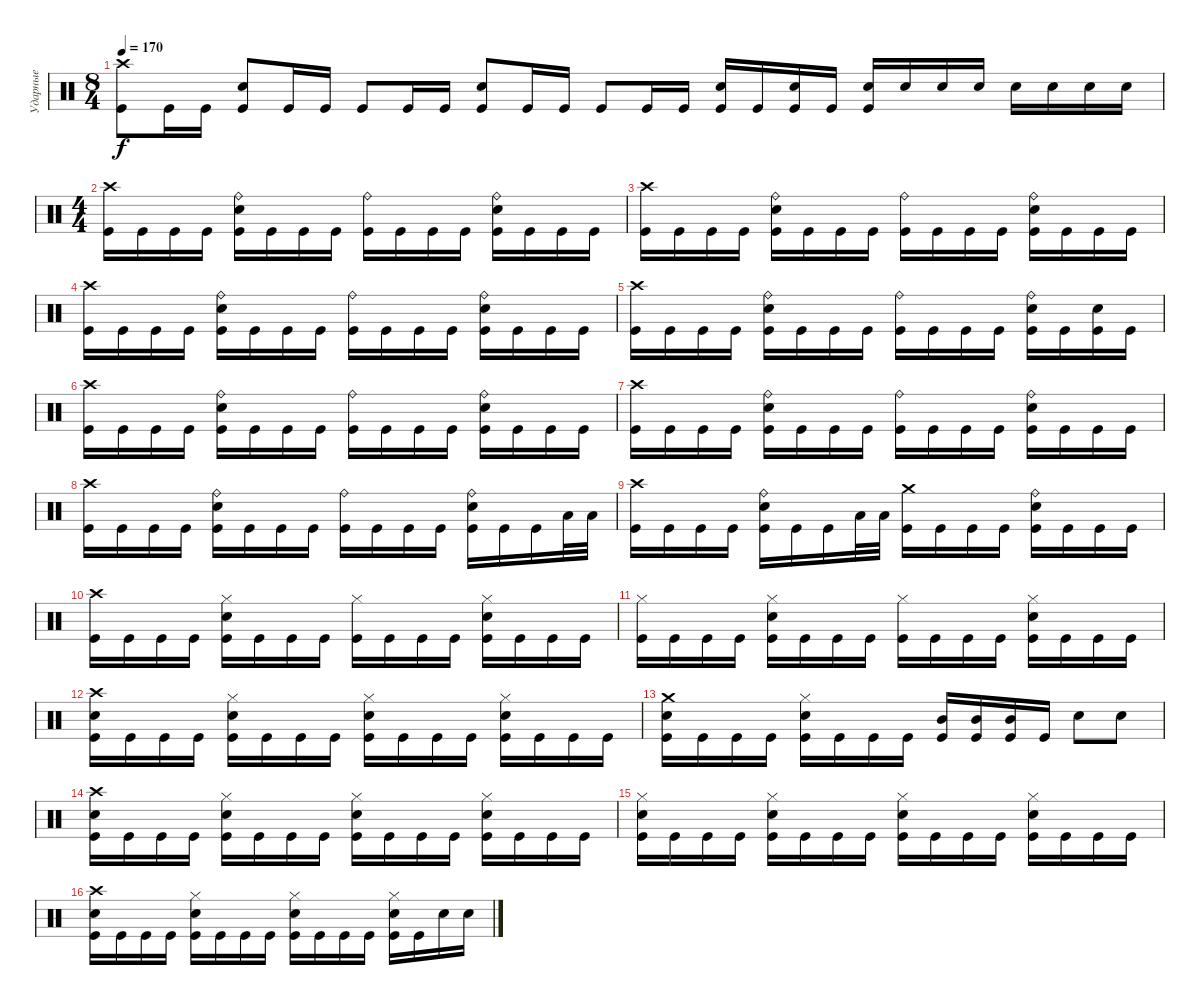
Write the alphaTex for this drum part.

\track ("Ударные" "Ударные") {instrument percussion}
\staff {score}
\articulation defaults
\ts (8 4)
\tempo 170
\clef neutral
\ks c
("Crash high (hit)" "Kick (hit)").8{dy f} "Kick (hit)".16 "Kick (hit)".16 ("Electric Snare (hit)" "Kick (hit)").8 "Kick (hit)".16 "Kick (hit)".16 "Kick (hit)".8 "Kick (hit)".16 "Kick (hit)".16 ("Electric Snare (hit)" "Kick (hit)").8 "Kick (hit)".16 "Kick (hit)".16 "Kick (hit)".8 "Kick (hit)".16 "Kick (hit)".16 ("Electric Snare (hit)" "Kick (hit)").16 "Kick (hit)".16 ("Electric Snare (hit)" "Kick (hit)").16 "Kick (hit)".16 ("Electric Snare (hit)" "Kick (hit)").16 "Electric Snare (hit)".16 "Electric Snare (hit)".16 "Electric Snare (hit)".16 "Electric Snare (hit)".16 "Electric Snare (hit)".16 "Electric Snare (hit)".16 "Electric Snare (hit)".16 |
\ts (4 4)
("Crash high (hit)" "Kick (hit)").16 "Kick (hit)".16 "Kick (hit)".16 "Kick (hit)".16 ("Ride (bell)" "Electric Snare (hit)" "Kick (hit)").16 "Kick (hit)".16 "Kick (hit)".16 "Kick (hit)".16 ("Ride (bell)" "Kick (hit)").16 "Kick (hit)".16 "Kick (hit)".16 "Kick (hit)".16 ("Ride (bell)" "Electric Snare (hit)" "Kick (hit)").16 "Kick (hit)".16 "Kick (hit)".16 "Kick (hit)".16 |
("Crash high (hit)" "Kick (hit)").16 "Kick (hit)".16 "Kick (hit)".16 "Kick (hit)".16 ("Ride (bell)" "Electric Snare (hit)" "Kick (hit)").16 "Kick (hit)".16 "Kick (hit)".16 "Kick (hit)".16 ("Ride (bell)" "Kick (hit)").16 "Kick (hit)".16 "Kick (hit)".16 "Kick (hit)".16 ("Ride (bell)" "Electric Snare (hit)" "Kick (hit)").16 "Kick (hit)".16 "Kick (hit)".16 "Kick (hit)".16 |
("Crash high (hit)" "Kick (hit)").16 "Kick (hit)".16 "Kick (hit)".16 "Kick (hit)".16 ("Ride (bell)" "Electric Snare (hit)" "Kick (hit)").16 "Kick (hit)".16 "Kick (hit)".16 "Kick (hit)".16 ("Ride (bell)" "Kick (hit)").16 "Kick (hit)".16 "Kick (hit)".16 "Kick (hit)".16 ("Ride (bell)" "Electric Snare (hit)" "Kick (hit)").16 "Kick (hit)".16 "Kick (hit)".16 "Kick (hit)".16 |
("Crash high (hit)" "Kick (hit)").16 "Kick (hit)".16 "Kick (hit)".16 "Kick (hit)".16 ("Ride (bell)" "Electric Snare (hit)" "Kick (hit)").16 "Kick (hit)".16 "Kick (hit)".16 "Kick (hit)".16 ("Ride (bell)" "Kick (hit)").16 "Kick (hit)".16 "Kick (hit)".16 "Kick (hit)".16 ("Ride (bell)" "Electric Snare (hit)" "Kick (hit)").16 "Kick (hit)".16 ("Electric Snare (hit)" "Kick (hit)").16 "Kick (hit)".16 |
("Crash high (hit)" "Kick (hit)").16 "Kick (hit)".16 "Kick (hit)".16 "Kick (hit)".16 ("Ride (bell)" "Electric Snare (hit)" "Kick (hit)").16 "Kick (hit)".16 "Kick (hit)".16 "Kick (hit)".16 ("Ride (bell)" "Kick (hit)").16 "Kick (hit)".16 "Kick (hit)".16 "Kick (hit)".16 ("Ride (bell)" "Electric Snare (hit)" "Kick (hit)").16 "Kick (hit)".16 "Kick (hit)".16 "Kick (hit)".16 |
("Crash high (hit)" "Kick (hit)").16 "Kick (hit)".16 "Kick (hit)".16 "Kick (hit)".16 ("Ride (bell)" "Electric Snare (hit)" "Kick (hit)").16 "Kick (hit)".16 "Kick (hit)".16 "Kick (hit)".16 ("Ride (bell)" "Kick (hit)").16 "Kick (hit)".16 "Kick (hit)".16 "Kick (hit)".16 ("Ride (bell)" "Electric Snare (hit)" "Kick (hit)").16 "Kick (hit)".16 "Kick (hit)".16 "Kick (hit)".16 |
("Crash high (hit)" "Kick (hit)").16 "Kick (hit)".16 "Kick (hit)".16 "Kick (hit)".16 ("Ride (bell)" "Electric Snare (hit)" "Kick (hit)").16 "Kick (hit)".16 "Kick (hit)".16 "Kick (hit)".16 ("Ride (bell)" "Kick (hit)").16 "Kick (hit)".16 "Kick (hit)".16 "Kick (hit)".16 ("Ride (bell)" "Electric Snare (hit)" "Kick (hit)").16 "Kick (hit)".16 "Kick (hit)".16 "Low Tom (hit)".32 "Low Tom (hit)".32 |
("Crash high (hit)" "Kick (hit)").16 "Kick (hit)".16 "Kick (hit)".16 "Kick (hit)".16 ("Ride (bell)" "Electric Snare (hit)" "Kick (hit)").16 "Kick (hit)".16 "Kick (hit)".16 "Low Tom (hit)".32 "Low Tom (hit)".32 ("Crash medium (hit)" "Kick (hit)").16 "Kick (hit)".16 "Kick (hit)".16 "Kick (hit)".16 ("Ride (bell)" "Electric Snare (hit)" "Kick (hit)").16 "Kick (hit)".16 "Kick (hit)".16 "Kick (hit)".16 |
("Crash high (hit)" "Kick (hit)").16 "Kick (hit)".16 "Kick (hit)".16 "Kick (hit)".16 ("Hi-Hat (closed)" "Electric Snare (hit)" "Kick (hit)").16 "Kick (hit)".16 "Kick (hit)".16 "Kick (hit)".16 ("Hi-Hat (closed)" "Kick (hit)").16 "Kick (hit)".16 "Kick (hit)".16 "Kick (hit)".16 ("Hi-Hat (closed)" "Electric Snare (hit)" "Kick (hit)").16 "Kick (hit)".16 "Kick (hit)".16 "Kick (hit)".16 |
("Hi-Hat (closed)" "Kick (hit)").16 "Kick (hit)".16 "Kick (hit)".16 "Kick (hit)".16 ("Hi-Hat (closed)" "Electric Snare (hit)" "Kick (hit)").16 "Kick (hit)".16 "Kick (hit)".16 "Kick (hit)".16 ("Hi-Hat (closed)" "Kick (hit)").16 "Kick (hit)".16 "Kick (hit)".16 "Kick (hit)".16 ("Hi-Hat (closed)" "Electric Snare (hit)" "Kick (hit)").16 "Kick (hit)".16 "Kick (hit)".16 "Kick (hit)".16 |
("Crash high (hit)" "Electric Snare (hit)" "Kick (hit)").16 "Kick (hit)".16 "Kick (hit)".16 "Kick (hit)".16 ("Hi-Hat (closed)" "Electric Snare (hit)" "Kick (hit)").16 "Kick (hit)".16 "Kick (hit)".16 "Kick (hit)".16 ("Hi-Hat (closed)" "Electric Snare (hit)" "Kick (hit)").16 "Kick (hit)".16 "Kick (hit)".16 "Kick (hit)".16 ("Hi-Hat (closed)" "Electric Snare (hit)" "Kick (hit)").16 "Kick (hit)".16 "Kick (hit)".16 "Kick (hit)".16 |
("Crash medium (hit)" "Electric Snare (hit)" "Kick (hit)").16 "Kick (hit)".16 "Kick (hit)".16 "Kick (hit)".16 ("Hi-Hat (closed)" "Electric Snare (hit)" "Kick (hit)").16 "Kick (hit)".16 "Kick (hit)".16 "Kick (hit)".16 ("Mid Tom (hit)" "Kick (hit)").16 ("Mid Tom (hit)" "Kick (hit)").16 ("Mid Tom (hit)" "Kick (hit)").16 "Kick (hit)".16 "Electric Snare (hit)".8 "Electric Snare (hit)".8 |
("Crash high (hit)" "Electric Snare (hit)" "Kick (hit)").16 "Kick (hit)".16 "Kick (hit)".16 "Kick (hit)".16 ("Hi-Hat (closed)" "Electric Snare (hit)" "Kick (hit)").16 "Kick (hit)".16 "Kick (hit)".16 "Kick (hit)".16 ("Hi-Hat (closed)" "Electric Snare (hit)" "Kick (hit)").16 "Kick (hit)".16 "Kick (hit)".16 "Kick (hit)".16 ("Hi-Hat (closed)" "Electric Snare (hit)" "Kick (hit)").16 "Kick (hit)".16 "Kick (hit)".16 "Kick (hit)".16 |
("Hi-Hat (closed)" "Electric Snare (hit)" "Kick (hit)").16 "Kick (hit)".16 "Kick (hit)".16 "Kick (hit)".16 ("Hi-Hat (closed)" "Electric Snare (hit)" "Kick (hit)").16 "Kick (hit)".16 "Kick (hit)".16 "Kick (hit)".16 ("Hi-Hat (closed)" "Electric Snare (hit)" "Kick (hit)").16 "Kick (hit)".16 "Kick (hit)".16 "Kick (hit)".16 ("Hi-Hat (closed)" "Electric Snare (hit)" "Kick (hit)").16 "Kick (hit)".16 "Kick (hit)".16 "Kick (hit)".16 |
("Crash high (hit)" "Electric Snare (hit)" "Kick (hit)").16 "Kick (hit)".16 "Kick (hit)".16 "Kick (hit)".16 ("Hi-Hat (closed)" "Electric Snare (hit)" "Kick (hit)").16 "Kick (hit)".16 "Kick (hit)".16 "Kick (hit)".16 ("Hi-Hat (closed)" "Electric Snare (hit)" "Kick (hit)").16 "Kick (hit)".16 "Kick (hit)".16 "Kick (hit)".16 ("Hi-Hat (closed)" "Electric Snare (hit)" "Kick (hit)").16 "Kick (hit)".16 "Electric Snare (hit)".16 "Electric Snare (hit)".16
